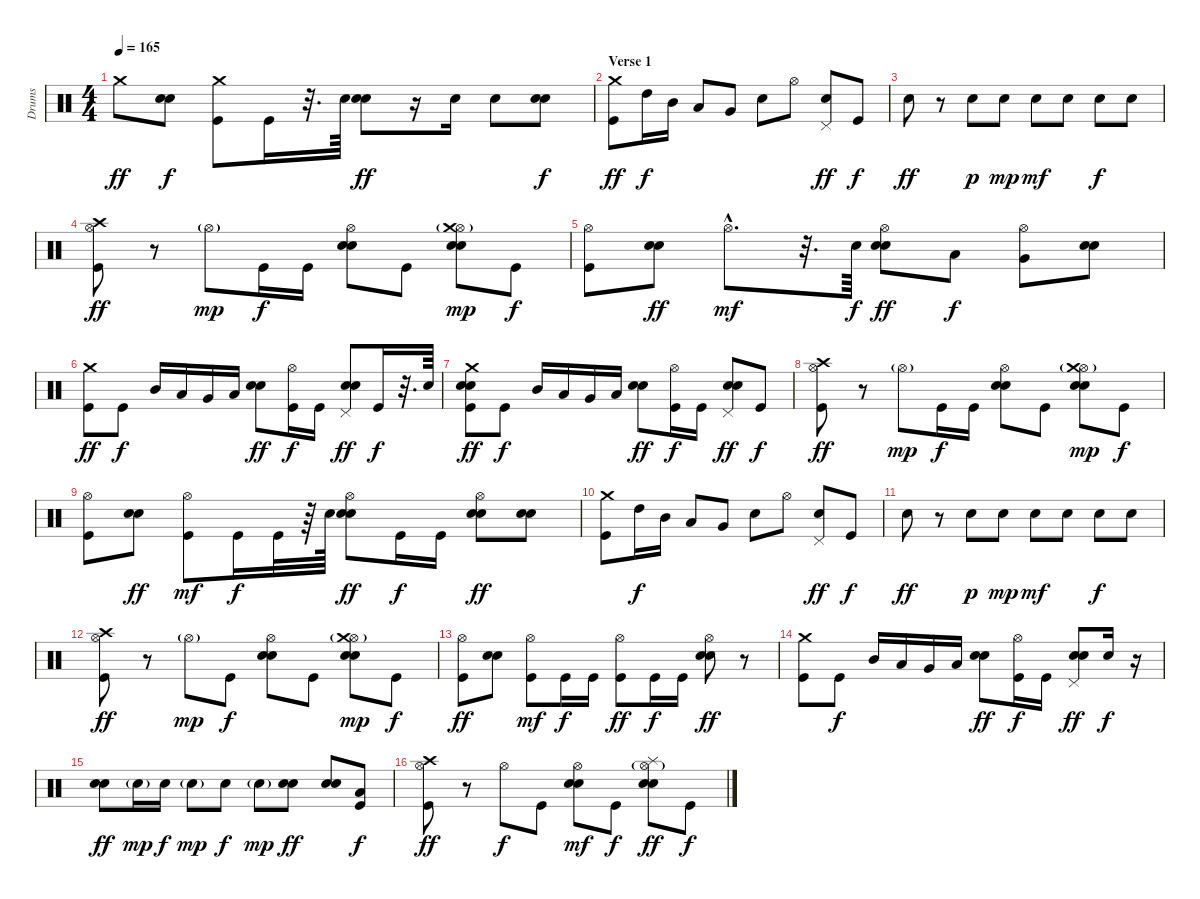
\track ("Drums" "Drums") {instrument percussion}
\staff {score}
\articulation defaults
\ts (4 4)
\tempo 165
\clef neutral
\ks c "Crash medium (hit)".8{dy ff}
("Electric Snare (hit)" "Electric Snare (hit)").8{dy f} ("Kick (hit)" "Crash medium (hit)").8 "Kick (hit)".16 r.32{d} "Electric Snare (hit)".64 ("Electric Snare (hit)" "Electric Snare (hit)").8{dy ff} r.16 "Electric Snare (hit)".16 "Electric Snare (hit)".8 ("Electric Snare (hit)" "Electric Snare (hit)").8{dy f} |
\section ("" "Verse 1")
("Kick (hit)" "Crash medium (hit)").8{dy ff} "High Tom (hit)".16{dy f} "Mid Tom (hit)".16 "Low Tom (hit)".8 "Very Low Tom (hit)".8 "Electric Snare (hit)".8 "Hi-Hat (open)".8 ("Electric Snare (hit)" "Pedal Hi-Hat (hit)").8{dy ff} "Kick (hit)".8{dy f} |
"Electric Snare (hit)".8{dy ff} r.8 "Electric Snare (hit)".8{dy p} "Electric Snare (hit)".8{dy mp} "Electric Snare (hit)".8{dy mf} "Electric Snare (hit)".8 "Electric Snare (hit)".8{dy f} "Electric Snare (hit)".8 |
("Kick (hit)" "Hi-Hat (open)" "Crash high (hit)").8{dy ff} r.8 "Hi-Hat (open)"{g}.8{dy mp} "Kick (hit)".16{dy f} "Kick (hit)".16 ("Electric Snare (hit)" "Electric Snare (hit)" "Hi-Hat (open)").8 "Kick (hit)".8 ("Electric Snare (hit)" "Electric Snare (hit)" "Hi-Hat (open)"{g} "Crash medium (hit)").8{dy mp} "Kick (hit)".8{dy f} |
("Kick (hit)" "Hi-Hat (open)").8 ("Electric Snare (hit)" "Electric Snare (hit)").8{dy ff} "Hi-Hat (open)"{hac}.8{d dy mf} r.32{d} "Electric Snare (hit)".64{dy f} ("Electric Snare (hit)" "Electric Snare (hit)" "Hi-Hat (open)").8{dy ff} "Low Tom (hit)".8{dy f} ("Very Low Tom (hit)" "Hi-Hat (open)").8 ("Electric Snare (hit)" "Electric Snare (hit)").8 |
("Kick (hit)" "Crash medium (hit)").8{dy ff} "Kick (hit)".8{dy f} "Mid Tom (hit)".16 "Low Tom (hit)".16 "Very Low Tom (hit)".16 "Low Floor Tom (hit)".16 ("Electric Snare (hit)" "Electric Snare (hit)").8{dy ff} ("Kick (hit)" "Hi-Hat (open)").16{dy f} "Kick (hit)".16 ("Electric Snare (hit)" "Pedal Hi-Hat (hit)" "Electric Snare (hit)").8{dy ff} "Kick (hit)".16{dy f} r.32{d} "Electric Snare (hit)".64 |
("Kick (hit)" "Electric Snare (hit)" "Electric Snare (hit)" "Crash medium (hit)").8{dy ff} "Kick (hit)".8{dy f} "Mid Tom (hit)".16 "Low Tom (hit)".16 "Very Low Tom (hit)".16 "Low Floor Tom (hit)".16 ("Electric Snare (hit)" "Electric Snare (hit)").8{dy ff} ("Kick (hit)" "Hi-Hat (open)").16{dy f} "Kick (hit)".16 ("Electric Snare (hit)" "Pedal Hi-Hat (hit)" "Electric Snare (hit)").8{dy ff} "Kick (hit)".8{dy f} |
("Kick (hit)" "Hi-Hat (open)" "Crash high (hit)").8{dy ff} r.8 "Hi-Hat (open)"{g}.8{dy mp} "Kick (hit)".16{dy f} "Kick (hit)".16 ("Electric Snare (hit)" "Electric Snare (hit)" "Hi-Hat (open)").8 "Kick (hit)".8 ("Electric Snare (hit)" "Electric Snare (hit)" "Hi-Hat (open)"{g} "Crash medium (hit)").8{dy mp} "Kick (hit)".8{dy f} |
("Kick (hit)" "Hi-Hat (open)").8 ("Electric Snare (hit)" "Electric Snare (hit)").8{dy ff} ("Kick (hit)" "Hi-Hat (open)").8{dy mf} "Kick (hit)".16{dy f} "Kick (hit)".32 r.64 "Electric Snare (hit)".64 ("Electric Snare (hit)" "Electric Snare (hit)" "Hi-Hat (open)").8{dy ff} "Kick (hit)".16{dy f} "Kick (hit)".16 ("Electric Snare (hit)" "Electric Snare (hit)" "Hi-Hat (open)").8{dy ff} ("Electric Snare (hit)" "Electric Snare (hit)").8 |
("Kick (hit)" "Crash medium (hit)").8 "High Tom (hit)".16{dy f} "Mid Tom (hit)".16 "Low Tom (hit)".8 "Very Low Tom (hit)".8 "Electric Snare (hit)".8 "Hi-Hat (open)".8 ("Electric Snare (hit)" "Pedal Hi-Hat (hit)").8{dy ff} "Kick (hit)".8{dy f} |
"Electric Snare (hit)".8{dy ff} r.8 "Electric Snare (hit)".8{dy p} "Electric Snare (hit)".8{dy mp} "Electric Snare (hit)".8{dy mf} "Electric Snare (hit)".8 "Electric Snare (hit)".8{dy f} "Electric Snare (hit)".8 |
("Kick (hit)" "Hi-Hat (open)" "Crash high (hit)").8{dy ff} r.8 "Hi-Hat (open)"{g}.8{dy mp} "Kick (hit)".8{dy f} ("Electric Snare (hit)" "Electric Snare (hit)" "Hi-Hat (open)").8 "Kick (hit)".8 ("Electric Snare (hit)" "Electric Snare (hit)" "Hi-Hat (open)"{g} "Crash medium (hit)").8{dy mp} "Kick (hit)".8{dy f} |
("Kick (hit)" "Hi-Hat (open)").8{dy ff} ("Electric Snare (hit)" "Electric Snare (hit)").8 ("Kick (hit)" "Hi-Hat (open)").8{dy mf} "Kick (hit)".16{dy f} "Kick (hit)".16 ("Kick (hit)" "Hi-Hat (open)").8{dy ff} "Kick (hit)".16{dy f} "Kick (hit)".16 ("Electric Snare (hit)" "Electric Snare (hit)" "Hi-Hat (open)").8{dy ff} r.8 |
("Kick (hit)" "Crash medium (hit)").8 "Kick (hit)".8{dy f} "Mid Tom (hit)".16 "Low Tom (hit)".16 "Very Low Tom (hit)".16 "Low Floor Tom (hit)".16 ("Electric Snare (hit)" "Electric Snare (hit)").8{dy ff} ("Kick (hit)" "Hi-Hat (open)").16{dy f} "Kick (hit)".16 ("Electric Snare (hit)" "Pedal Hi-Hat (hit)" "Electric Snare (hit)").8{dy ff} "Electric Snare (hit)".16{dy f} r.16 |
("Electric Snare (hit)" "Electric Snare (hit)").8{dy ff} "Electric Snare (hit)"{g}.16{dy mp} "Electric Snare (hit)".16{dy f} "Electric Snare (hit)"{g}.8{dy mp} "Electric Snare (hit)".8{dy f} "Electric Snare (hit)"{g}.8{dy mp} ("Electric Snare (hit)" "Electric Snare (hit)").8{dy ff} ("Electric Snare (hit)" "Electric Snare (hit)").8 ("Kick (hit)" "Low Floor Tom (hit)").8{dy f} |
("Kick (hit)" "Hi-Hat (open)" "Crash high (hit)").8{dy ff} r.8 "Hi-Hat (open)".8{dy f} "Kick (hit)".8 ("Electric Snare (hit)" "Electric Snare (hit)" "Hi-Hat (open)").8{dy mf} "Kick (hit)".8{dy f} ("Electric Snare (hit)" "Electric Snare (hit)" "Hi-Hat (open)"{g} "Splash (hit)").8{dy ff} "Kick (hit)".8{dy f}
